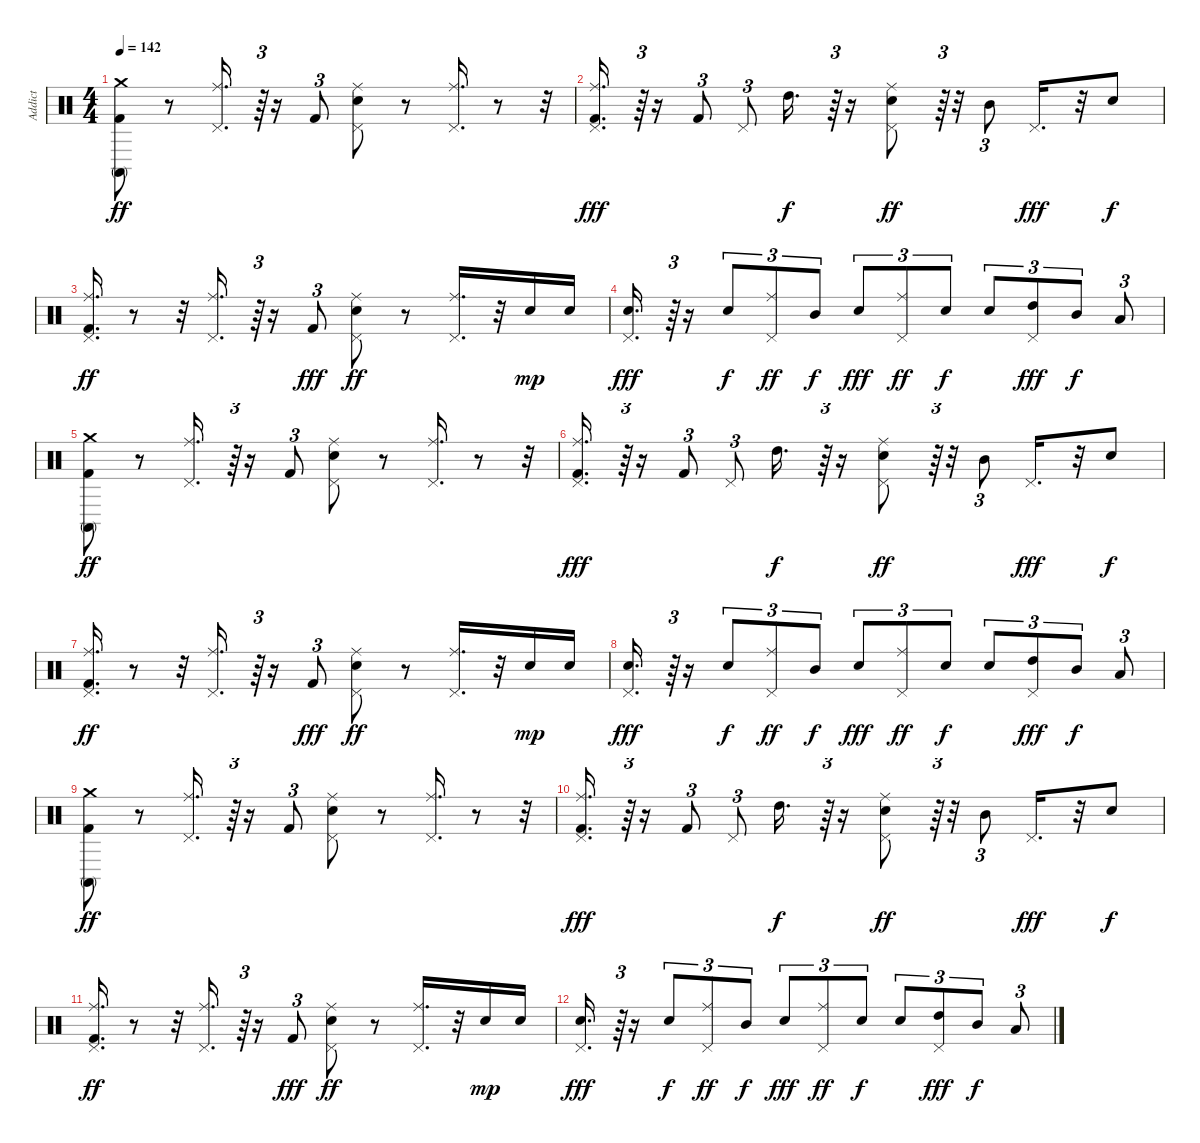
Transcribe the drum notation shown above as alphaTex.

\track ("Addict" "Addict") {instrument percussion}
\staff {score}
\articulation defaults
\ts (4 4)
\tempo 142
\clef neutral
\ks c
("Kick (hit) 2" "Conga high (mute)" "Crash medium (hit)").8{dy ff} r.8 ("Ride (middle)" "Pedal Hi-Hat (hit)").16{d} r.64{tu (3 2)} r.16 "Kick (hit) 2".8{tu (3 2)} ("Snare (hit) 2" "Pedal Hi-Hat (hit)" "Ride (middle)").8 r.8 ("Pedal Hi-Hat (hit)" "Ride (middle)").16{d} r.8 r.32 |
("Kick (hit) 2" "Pedal Hi-Hat (hit)" "Ride (middle)").16{d dy fff} r.64{tu (3 2)} r.16 "Kick (hit) 2".8{tu (3 2)} "Pedal Hi-Hat (hit)".8{tu (3 2)} "High Tom (hit)".16{d dy f} r.64{tu (3 2)} r.16 ("Snare (hit) 2" "Pedal Hi-Hat (hit)" "Ride (middle)").8{dy ff} r.64{tu (3 2)} r.32 "Mid Tom (hit)".8{tu (3 2)} "Pedal Hi-Hat (hit)".16{d dy fff} r.32 "Snare (hit) 2".8{dy f} |
("Kick (hit) 2" "Pedal Hi-Hat (hit)" "Ride (middle)").16{d dy ff} r.8 r.32 ("Pedal Hi-Hat (hit)" "Ride (middle)").16{d} r.64{tu (3 2)} r.16 "Kick (hit) 2".8{tu (3 2) dy fff} ("Snare (hit) 2" "Pedal Hi-Hat (hit)" "Ride (middle)").8{dy ff} r.8 ("Pedal Hi-Hat (hit)" "Ride (middle)").16{d} r.32 "Snare (hit) 2".16{dy mp} "Snare (hit) 2".16 |
("Snare (hit) 2" "Pedal Hi-Hat (hit)").16{d dy fff} r.64{tu (3 2)} r.16 "Snare (hit) 2".8{tu (3 2) dy f} ("Pedal Hi-Hat (hit)" "Ride (middle)").8{tu (3 2) dy ff} "Mid Tom (hit)".8{tu (3 2) dy f} "Snare (hit) 2".8{tu (3 2) dy fff} ("Pedal Hi-Hat (hit)" "Ride (middle)").8{tu (3 2) dy ff} "Snare (hit) 2".8{tu (3 2) dy f} "Snare (hit) 2".8{tu (3 2)} ("Pedal Hi-Hat (hit)" "High Tom (hit)").8{tu (3 2) dy fff} "Mid Tom (hit)".8{tu (3 2) dy f} "Low Tom (hit)".8{tu (3 2)} |
("Kick (hit) 2" "Conga high (mute)" "Crash medium (hit)").8{dy ff} r.8 ("Ride (middle)" "Pedal Hi-Hat (hit)").16{d} r.64{tu (3 2)} r.16 "Kick (hit) 2".8{tu (3 2)} ("Snare (hit) 2" "Pedal Hi-Hat (hit)" "Ride (middle)").8 r.8 ("Pedal Hi-Hat (hit)" "Ride (middle)").16{d} r.8 r.32 |
("Kick (hit) 2" "Pedal Hi-Hat (hit)" "Ride (middle)").16{d dy fff} r.64{tu (3 2)} r.16 "Kick (hit) 2".8{tu (3 2)} "Pedal Hi-Hat (hit)".8{tu (3 2)} "High Tom (hit)".16{d dy f} r.64{tu (3 2)} r.16 ("Snare (hit) 2" "Pedal Hi-Hat (hit)" "Ride (middle)").8{dy ff} r.64{tu (3 2)} r.32 "Mid Tom (hit)".8{tu (3 2)} "Pedal Hi-Hat (hit)".16{d dy fff} r.32 "Snare (hit) 2".8{dy f} |
("Kick (hit) 2" "Pedal Hi-Hat (hit)" "Ride (middle)").16{d dy ff} r.8 r.32 ("Pedal Hi-Hat (hit)" "Ride (middle)").16{d} r.64{tu (3 2)} r.16 "Kick (hit) 2".8{tu (3 2) dy fff} ("Snare (hit) 2" "Pedal Hi-Hat (hit)" "Ride (middle)").8{dy ff} r.8 ("Pedal Hi-Hat (hit)" "Ride (middle)").16{d} r.32 "Snare (hit) 2".16{dy mp} "Snare (hit) 2".16 |
("Snare (hit) 2" "Pedal Hi-Hat (hit)").16{d dy fff} r.64{tu (3 2)} r.16 "Snare (hit) 2".8{tu (3 2) dy f} ("Pedal Hi-Hat (hit)" "Ride (middle)").8{tu (3 2) dy ff} "Mid Tom (hit)".8{tu (3 2) dy f} "Snare (hit) 2".8{tu (3 2) dy fff} ("Pedal Hi-Hat (hit)" "Ride (middle)").8{tu (3 2) dy ff} "Snare (hit) 2".8{tu (3 2) dy f} "Snare (hit) 2".8{tu (3 2)} ("Pedal Hi-Hat (hit)" "High Tom (hit)").8{tu (3 2) dy fff} "Mid Tom (hit)".8{tu (3 2) dy f} "Low Tom (hit)".8{tu (3 2)} |
("Kick (hit) 2" "Conga high (mute)" "Crash medium (hit)").8{dy ff} r.8 ("Ride (middle)" "Pedal Hi-Hat (hit)").16{d} r.64{tu (3 2)} r.16 "Kick (hit) 2".8{tu (3 2)} ("Snare (hit) 2" "Pedal Hi-Hat (hit)" "Ride (middle)").8 r.8 ("Pedal Hi-Hat (hit)" "Ride (middle)").16{d} r.8 r.32 |
("Kick (hit) 2" "Pedal Hi-Hat (hit)" "Ride (middle)").16{d dy fff} r.64{tu (3 2)} r.16 "Kick (hit) 2".8{tu (3 2)} "Pedal Hi-Hat (hit)".8{tu (3 2)} "High Tom (hit)".16{d dy f} r.64{tu (3 2)} r.16 ("Snare (hit) 2" "Pedal Hi-Hat (hit)" "Ride (middle)").8{dy ff} r.64{tu (3 2)} r.32 "Mid Tom (hit)".8{tu (3 2)} "Pedal Hi-Hat (hit)".16{d dy fff} r.32 "Snare (hit) 2".8{dy f} |
("Kick (hit) 2" "Pedal Hi-Hat (hit)" "Ride (middle)").16{d dy ff} r.8 r.32 ("Pedal Hi-Hat (hit)" "Ride (middle)").16{d} r.64{tu (3 2)} r.16 "Kick (hit) 2".8{tu (3 2) dy fff} ("Snare (hit) 2" "Pedal Hi-Hat (hit)" "Ride (middle)").8{dy ff} r.8 ("Pedal Hi-Hat (hit)" "Ride (middle)").16{d} r.32 "Snare (hit) 2".16{dy mp} "Snare (hit) 2".16 |
("Snare (hit) 2" "Pedal Hi-Hat (hit)").16{d dy fff} r.64{tu (3 2)} r.16 "Snare (hit) 2".8{tu (3 2) dy f} ("Pedal Hi-Hat (hit)" "Ride (middle)").8{tu (3 2) dy ff} "Mid Tom (hit)".8{tu (3 2) dy f} "Snare (hit) 2".8{tu (3 2) dy fff} ("Pedal Hi-Hat (hit)" "Ride (middle)").8{tu (3 2) dy ff} "Snare (hit) 2".8{tu (3 2) dy f} "Snare (hit) 2".8{tu (3 2)} ("Pedal Hi-Hat (hit)" "High Tom (hit)").8{tu (3 2) dy fff} "Mid Tom (hit)".8{tu (3 2) dy f} "Low Tom (hit)".8{tu (3 2)}
